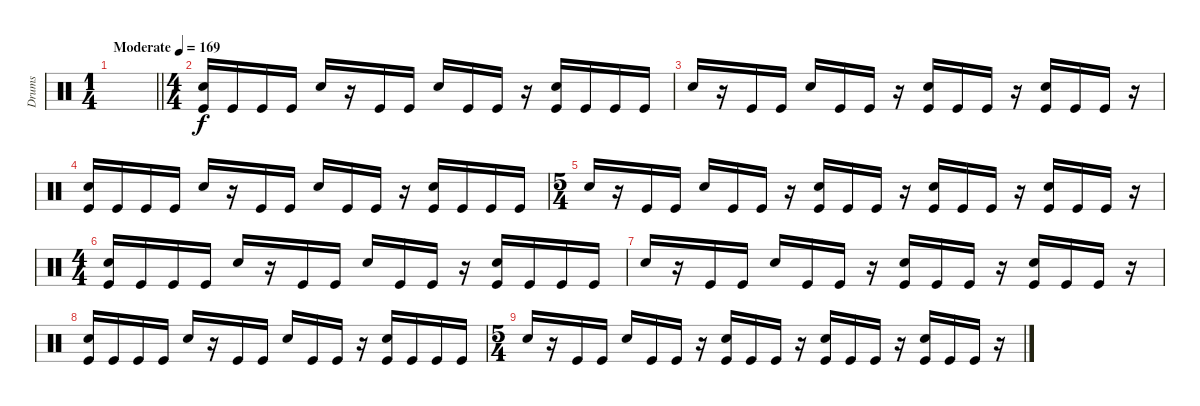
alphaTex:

\track ("Drums" "Drums") {instrument percussion}
\staff
\articulation defaults
\ts (1 4)
\tempo (169 "Moderate")
\clef neutral
\barLineRight lightlight
\ks c
|
\ts (4 4)
("Electric Snare (hit)" "Kick (hit)").16 "Kick (hit)".16 "Kick (hit)".16 "Kick (hit)".16 "Electric Snare (hit)".16 r.16 "Kick (hit)".16 "Kick (hit)".16 "Electric Snare (hit)".16 "Kick (hit)".16 "Kick (hit)".16 r.16 ("Electric Snare (hit)" "Kick (hit)").16 "Kick (hit)".16 "Kick (hit)".16 "Kick (hit)".16 |
"Electric Snare (hit)".16 r.16 "Kick (hit)".16 "Kick (hit)".16 "Electric Snare (hit)".16 "Kick (hit)".16 "Kick (hit)".16 r.16 ("Electric Snare (hit)" "Kick (hit)").16 "Kick (hit)".16 "Kick (hit)".16 r.16 ("Electric Snare (hit)" "Kick (hit)").16 "Kick (hit)".16 "Kick (hit)".16 r.16 |
("Electric Snare (hit)" "Kick (hit)").16 "Kick (hit)".16 "Kick (hit)".16 "Kick (hit)".16 "Electric Snare (hit)".16 r.16 "Kick (hit)".16 "Kick (hit)".16 "Electric Snare (hit)".16 "Kick (hit)".16 "Kick (hit)".16 r.16 ("Electric Snare (hit)" "Kick (hit)").16 "Kick (hit)".16 "Kick (hit)".16 "Kick (hit)".16 |
\ts (5 4)
"Electric Snare (hit)".16 r.16 "Kick (hit)".16 "Kick (hit)".16 "Electric Snare (hit)".16 "Kick (hit)".16 "Kick (hit)".16 r.16 ("Electric Snare (hit)" "Kick (hit)").16 "Kick (hit)".16 "Kick (hit)".16 r.16 ("Electric Snare (hit)" "Kick (hit)").16 "Kick (hit)".16 "Kick (hit)".16 r.16 ("Electric Snare (hit)" "Kick (hit)").16 "Kick (hit)".16 "Kick (hit)".16 r.16 |
\ts (4 4)
("Electric Snare (hit)" "Kick (hit)").16 "Kick (hit)".16 "Kick (hit)".16 "Kick (hit)".16 "Electric Snare (hit)".16 r.16 "Kick (hit)".16 "Kick (hit)".16 "Electric Snare (hit)".16 "Kick (hit)".16 "Kick (hit)".16 r.16 ("Electric Snare (hit)" "Kick (hit)").16 "Kick (hit)".16 "Kick (hit)".16 "Kick (hit)".16 |
"Electric Snare (hit)".16 r.16 "Kick (hit)".16 "Kick (hit)".16 "Electric Snare (hit)".16 "Kick (hit)".16 "Kick (hit)".16 r.16 ("Electric Snare (hit)" "Kick (hit)").16 "Kick (hit)".16 "Kick (hit)".16 r.16 ("Electric Snare (hit)" "Kick (hit)").16 "Kick (hit)".16 "Kick (hit)".16 r.16 |
("Electric Snare (hit)" "Kick (hit)").16 "Kick (hit)".16 "Kick (hit)".16 "Kick (hit)".16 "Electric Snare (hit)".16 r.16 "Kick (hit)".16 "Kick (hit)".16 "Electric Snare (hit)".16 "Kick (hit)".16 "Kick (hit)".16 r.16 ("Electric Snare (hit)" "Kick (hit)").16 "Kick (hit)".16 "Kick (hit)".16 "Kick (hit)".16 |
\ts (5 4)
"Electric Snare (hit)".16 r.16 "Kick (hit)".16 "Kick (hit)".16 "Electric Snare (hit)".16 "Kick (hit)".16 "Kick (hit)".16 r.16 ("Electric Snare (hit)" "Kick (hit)").16 "Kick (hit)".16 "Kick (hit)".16 r.16 ("Electric Snare (hit)" "Kick (hit)").16 "Kick (hit)".16 "Kick (hit)".16 r.16 ("Electric Snare (hit)" "Kick (hit)").16 "Kick (hit)".16 "Kick (hit)".16 r.16
